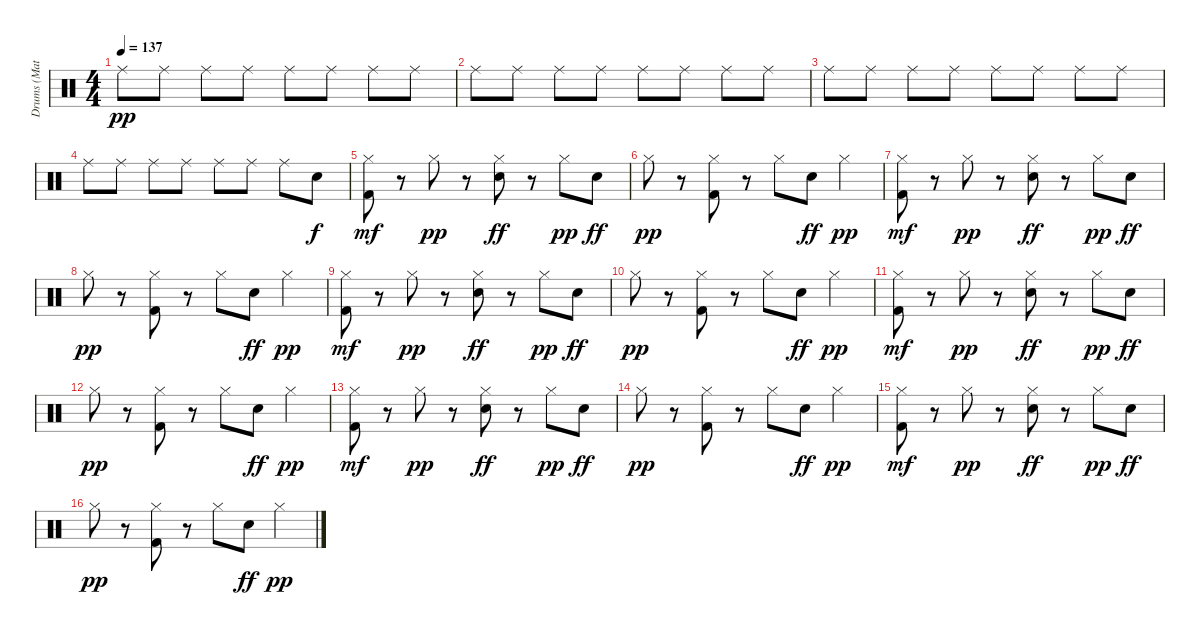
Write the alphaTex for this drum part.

\track ("Drums (Matthias)" "Drums (Mat") {instrument percussion}
\staff {score}
\articulation defaults
\ts (4 4)
\tempo 137
\clef neutral
\ks c "Ride (middle)".8{dy pp} "Ride (middle)".8 "Ride (middle)".8 "Ride (middle)".8 "Ride (middle)".8 "Ride (middle)".8 "Ride (middle)".8 "Ride (middle)".8
|
"Ride (middle)".8 "Ride (middle)".8 "Ride (middle)".8 "Ride (middle)".8 "Ride (middle)".8 "Ride (middle)".8 "Ride (middle)".8 "Ride (middle)".8 |
"Ride (middle)".8 "Ride (middle)".8 "Ride (middle)".8 "Ride (middle)".8 "Ride (middle)".8 "Ride (middle)".8 "Ride (middle)".8 "Ride (middle)".8 |
"Ride (middle)".8 "Ride (middle)".8 "Ride (middle)".8 "Ride (middle)".8 "Ride (middle)".8 "Ride (middle)".8 "Ride (middle)".8 "Electric Snare (hit)".8{dy f volume 9} |
("Hi-Hat (closed)" "Kick (hit) 2").8{dy mf} r.8 "Hi-Hat (closed)".8{dy pp} r.8 ("Hi-Hat (closed)" "Electric Snare (hit)").8{dy ff} r.8 "Hi-Hat (closed)".8{dy pp} "Electric Snare (hit)".8{dy ff} |
"Hi-Hat (closed)".8{dy pp} r.8 ("Hi-Hat (closed)" "Kick (hit) 2").8 r.8 "Hi-Hat (closed)".8 "Electric Snare (hit)".8{dy ff} "Hi-Hat (closed)".4{dy pp} |
("Hi-Hat (closed)" "Kick (hit) 2").8{dy mf} r.8 "Hi-Hat (closed)".8{dy pp} r.8 ("Hi-Hat (closed)" "Electric Snare (hit)").8{dy ff} r.8 "Hi-Hat (closed)".8{dy pp} "Electric Snare (hit)".8{dy ff} |
"Hi-Hat (closed)".8{dy pp} r.8 ("Hi-Hat (closed)" "Kick (hit) 2").8 r.8 "Hi-Hat (closed)".8 "Electric Snare (hit)".8{dy ff} "Hi-Hat (closed)".4{dy pp} |
("Hi-Hat (closed)" "Kick (hit) 2").8{dy mf} r.8 "Hi-Hat (closed)".8{dy pp} r.8 ("Hi-Hat (closed)" "Electric Snare (hit)").8{dy ff} r.8 "Hi-Hat (closed)".8{dy pp} "Electric Snare (hit)".8{dy ff} |
"Hi-Hat (closed)".8{dy pp} r.8 ("Hi-Hat (closed)" "Kick (hit) 2").8 r.8 "Hi-Hat (closed)".8 "Electric Snare (hit)".8{dy ff} "Hi-Hat (closed)".4{dy pp} |
("Hi-Hat (closed)" "Kick (hit) 2").8{dy mf} r.8 "Hi-Hat (closed)".8{dy pp} r.8 ("Hi-Hat (closed)" "Electric Snare (hit)").8{dy ff} r.8 "Hi-Hat (closed)".8{dy pp} "Electric Snare (hit)".8{dy ff} |
"Hi-Hat (closed)".8{dy pp} r.8 ("Hi-Hat (closed)" "Kick (hit) 2").8 r.8 "Hi-Hat (closed)".8 "Electric Snare (hit)".8{dy ff} "Hi-Hat (closed)".4{dy pp} |
("Hi-Hat (closed)" "Kick (hit) 2").8{dy mf} r.8 "Hi-Hat (closed)".8{dy pp} r.8 ("Hi-Hat (closed)" "Electric Snare (hit)").8{dy ff} r.8 "Hi-Hat (closed)".8{dy pp} "Electric Snare (hit)".8{dy ff} |
"Hi-Hat (closed)".8{dy pp} r.8 ("Hi-Hat (closed)" "Kick (hit) 2").8 r.8 "Hi-Hat (closed)".8 "Electric Snare (hit)".8{dy ff} "Hi-Hat (closed)".4{dy pp} |
("Hi-Hat (closed)" "Kick (hit) 2").8{dy mf} r.8 "Hi-Hat (closed)".8{dy pp} r.8 ("Hi-Hat (closed)" "Electric Snare (hit)").8{dy ff} r.8 "Hi-Hat (closed)".8{dy pp} "Electric Snare (hit)".8{dy ff} |
"Hi-Hat (closed)".8{dy pp} r.8 ("Hi-Hat (closed)" "Kick (hit) 2").8 r.8 "Hi-Hat (closed)".8 "Electric Snare (hit)".8{dy ff} "Hi-Hat (closed)".4{dy pp}
